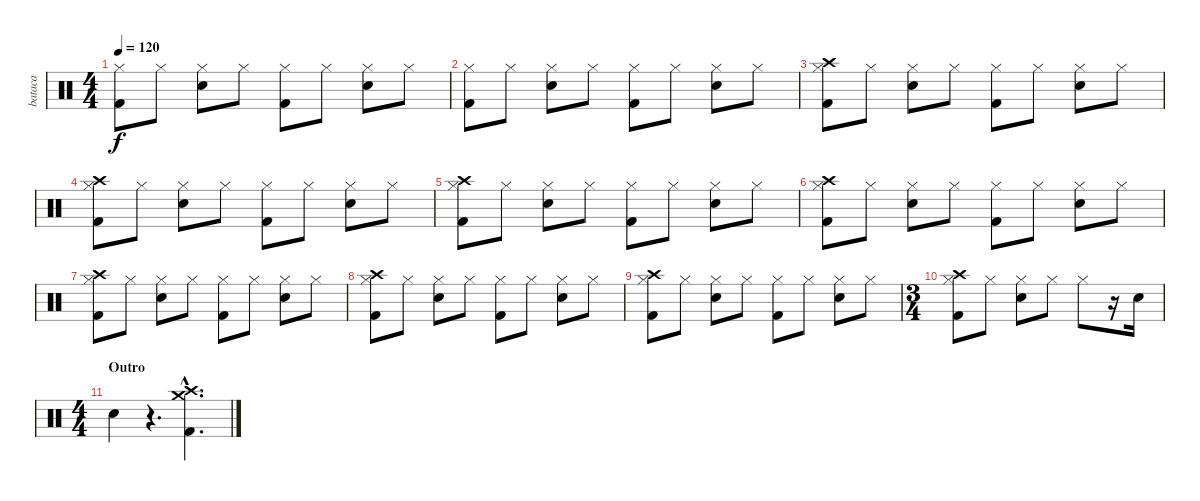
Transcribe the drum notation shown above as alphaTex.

\track ("bataca" "bataca") {instrument percussion}
\staff {score}
\articulation defaults
\ts (4 4)
\tempo 120
\clef neutral
\ks c
("Hi-Hat (closed)" "Kick (hit) 2").8{dy f} "Hi-Hat (closed)".8 ("Hi-Hat (closed)" "Electric Snare (hit)").8 "Hi-Hat (closed)".8 ("Hi-Hat (closed)" "Kick (hit) 2").8 "Hi-Hat (closed)".8 ("Hi-Hat (closed)" "Electric Snare (hit)").8 "Hi-Hat (closed)".8 |
("Hi-Hat (closed)" "Kick (hit) 2").8 "Hi-Hat (closed)".8 ("Hi-Hat (closed)" "Electric Snare (hit)").8 "Hi-Hat (closed)".8 ("Hi-Hat (closed)" "Kick (hit) 2").8 "Hi-Hat (closed)".8 ("Hi-Hat (closed)" "Electric Snare (hit)").8 "Hi-Hat (closed)".8 |
("Hi-Hat (closed)" "Kick (hit) 2" "Crash high (hit)").8 "Hi-Hat (closed)".8 ("Hi-Hat (closed)" "Electric Snare (hit)").8 "Hi-Hat (closed)".8 ("Hi-Hat (closed)" "Kick (hit) 2").8 "Hi-Hat (closed)".8 ("Hi-Hat (closed)" "Electric Snare (hit)").8 "Hi-Hat (closed)".8 |
("Hi-Hat (closed)" "Kick (hit) 2" "Crash high (hit)").8 "Hi-Hat (closed)".8 ("Hi-Hat (closed)" "Electric Snare (hit)").8 "Hi-Hat (closed)".8 ("Hi-Hat (closed)" "Kick (hit) 2").8 "Hi-Hat (closed)".8 ("Hi-Hat (closed)" "Electric Snare (hit)").8 "Hi-Hat (closed)".8 |
("Hi-Hat (closed)" "Kick (hit) 2" "Crash high (hit)").8 "Hi-Hat (closed)".8 ("Hi-Hat (closed)" "Electric Snare (hit)").8 "Hi-Hat (closed)".8 ("Hi-Hat (closed)" "Kick (hit) 2").8 "Hi-Hat (closed)".8 ("Hi-Hat (closed)" "Electric Snare (hit)").8 "Hi-Hat (closed)".8 |
("Hi-Hat (closed)" "Kick (hit) 2" "Crash high (hit)").8 "Hi-Hat (closed)".8 ("Hi-Hat (closed)" "Electric Snare (hit)").8 "Hi-Hat (closed)".8 ("Hi-Hat (closed)" "Kick (hit) 2").8 "Hi-Hat (closed)".8 ("Hi-Hat (closed)" "Electric Snare (hit)").8 "Hi-Hat (closed)".8 |
("Hi-Hat (closed)" "Kick (hit) 2" "Crash high (hit)").8 "Hi-Hat (closed)".8 ("Hi-Hat (closed)" "Electric Snare (hit)").8 "Hi-Hat (closed)".8 ("Hi-Hat (closed)" "Kick (hit) 2").8 "Hi-Hat (closed)".8 ("Hi-Hat (closed)" "Electric Snare (hit)").8 "Hi-Hat (closed)".8 |
("Hi-Hat (closed)" "Kick (hit) 2" "Crash high (hit)").8 "Hi-Hat (closed)".8 ("Hi-Hat (closed)" "Electric Snare (hit)").8 "Hi-Hat (closed)".8 ("Hi-Hat (closed)" "Kick (hit) 2").8 "Hi-Hat (closed)".8 ("Hi-Hat (closed)" "Electric Snare (hit)").8 "Hi-Hat (closed)".8 |
("Hi-Hat (closed)" "Kick (hit) 2" "Crash high (hit)").8 "Hi-Hat (closed)".8 ("Hi-Hat (closed)" "Electric Snare (hit)").8 "Hi-Hat (closed)".8 ("Hi-Hat (closed)" "Kick (hit) 2").8 "Hi-Hat (closed)".8 ("Hi-Hat (closed)" "Electric Snare (hit)").8 "Hi-Hat (closed)".8 |
\ts (3 4)
("Hi-Hat (closed)" "Kick (hit) 2" "Crash high (hit)").8 "Hi-Hat (closed)".8 ("Hi-Hat (closed)" "Electric Snare (hit)").8 "Hi-Hat (closed)".8 "Hi-Hat (closed)".8 r.16 "Electric Snare (hit)".16 |
\ts (4 4)
\section ("" "Outro")
"Electric Snare (hit)".4 r.4{d} ("Kick (hit) 2"{hac} "Crash high (hit)"{hac} "Crash medium (hit)"{hac}).4{d}
